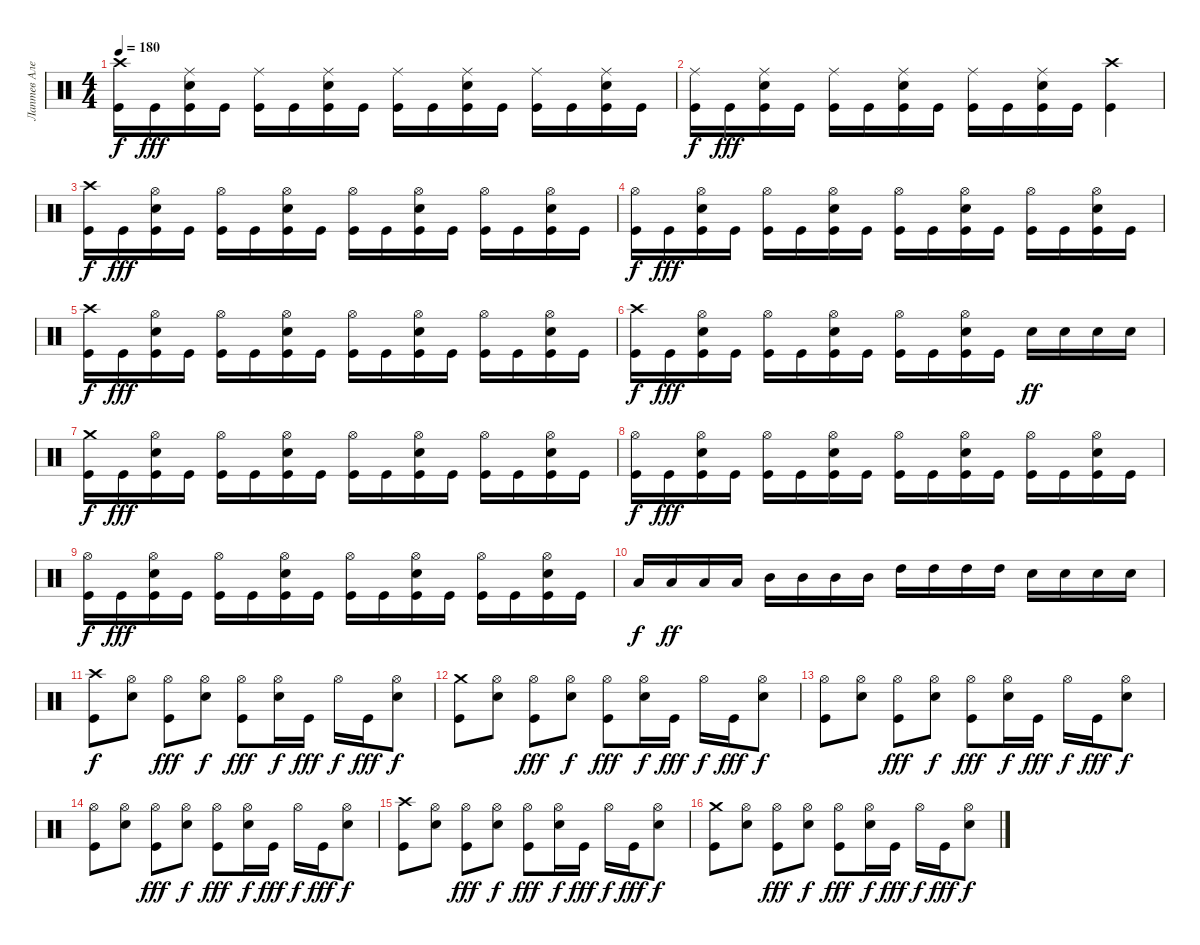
\track ("Лаптев Алексей" "Лаптев Але") {instrument percussion}
\staff {score}
\articulation defaults
\ts (4 4)
\tempo 180
\clef neutral
\ks c
("Crash high (hit)" "Kick (hit)").16{dy f} "Kick (hit)".16{dy fff} ("Snare (hit) 2" "Ride (middle)" "Kick (hit)").16 "Kick (hit)".16 ("Ride (middle)" "Kick (hit)").16 "Kick (hit)".16 ("Ride (middle)" "Snare (hit) 2" "Kick (hit)").16 "Kick (hit)".16 ("Ride (middle)" "Kick (hit)").16 "Kick (hit)".16 ("Ride (middle)" "Snare (hit) 2" "Kick (hit)").16 "Kick (hit)".16 ("Ride (middle)" "Kick (hit)").16 "Kick (hit)".16 ("Ride (middle)" "Snare (hit) 2" "Kick (hit)").16 "Kick (hit)".16 |
("Ride (middle)" "Kick (hit)").16{dy f} "Kick (hit)".16{dy fff} ("Snare (hit) 2" "Ride (middle)" "Kick (hit)").16 "Kick (hit)".16 ("Ride (middle)" "Kick (hit)").16 "Kick (hit)".16 ("Ride (middle)" "Snare (hit) 2" "Kick (hit)").16 "Kick (hit)".16 ("Ride (middle)" "Kick (hit)").16 "Kick (hit)".16 ("Ride (middle)" "Snare (hit) 2" "Kick (hit)").16 "Kick (hit)".16 ("Crash high (hit)" "Kick (hit)").4 |
("Crash high (hit)" "Kick (hit)").16{dy f} "Kick (hit)".16{dy fff} ("Hi-Hat (open)" "Snare (hit) 2" "Kick (hit)").16 "Kick (hit)".16 ("Hi-Hat (open)" "Kick (hit)").16 "Kick (hit)".16 ("Hi-Hat (open)" "Snare (hit) 2" "Kick (hit)").16 "Kick (hit)".16 ("Hi-Hat (open)" "Kick (hit)").16 "Kick (hit)".16 ("Hi-Hat (open)" "Snare (hit) 2" "Kick (hit)").16 "Kick (hit)".16 ("Hi-Hat (open)" "Kick (hit)").16 "Kick (hit)".16 ("Hi-Hat (open)" "Snare (hit) 2" "Kick (hit)").16 "Kick (hit)".16 |
("Hi-Hat (open)" "Kick (hit)").16{dy f} "Kick (hit)".16{dy fff} ("Hi-Hat (open)" "Snare (hit) 2" "Kick (hit)").16 "Kick (hit)".16 ("Hi-Hat (open)" "Kick (hit)").16 "Kick (hit)".16 ("Hi-Hat (open)" "Snare (hit) 2" "Kick (hit)").16 "Kick (hit)".16 ("Hi-Hat (open)" "Kick (hit)").16 "Kick (hit)".16 ("Hi-Hat (open)" "Snare (hit) 2" "Kick (hit)").16 "Kick (hit)".16 ("Hi-Hat (open)" "Kick (hit)").16 "Kick (hit)".16 ("Hi-Hat (open)" "Snare (hit) 2" "Kick (hit)").16 "Kick (hit)".16 |
("Crash high (hit)" "Kick (hit)").16{dy f} "Kick (hit)".16{dy fff} ("Hi-Hat (open)" "Snare (hit) 2" "Kick (hit)").16 "Kick (hit)".16 ("Hi-Hat (open)" "Kick (hit)").16 "Kick (hit)".16 ("Hi-Hat (open)" "Snare (hit) 2" "Kick (hit)").16 "Kick (hit)".16 ("Hi-Hat (open)" "Kick (hit)").16 "Kick (hit)".16 ("Hi-Hat (open)" "Snare (hit) 2" "Kick (hit)").16 "Kick (hit)".16 ("Hi-Hat (open)" "Kick (hit)").16 "Kick (hit)".16 ("Hi-Hat (open)" "Snare (hit) 2" "Kick (hit)").16 "Kick (hit)".16 |
("Crash high (hit)" "Kick (hit)").16{dy f} "Kick (hit)".16{dy fff} ("Hi-Hat (open)" "Snare (hit) 2" "Kick (hit)").16 "Kick (hit)".16 ("Hi-Hat (open)" "Kick (hit)").16 "Kick (hit)".16 ("Hi-Hat (open)" "Snare (hit) 2" "Kick (hit)").16 "Kick (hit)".16 ("Hi-Hat (open)" "Kick (hit)").16 "Kick (hit)".16 ("Hi-Hat (open)" "Snare (hit) 2" "Kick (hit)").16 "Kick (hit)".16 "Snare (hit) 2".16{dy ff} "Snare (hit) 2".16 "Snare (hit) 2".16 "Snare (hit) 2".16 |
("Crash medium (hit)" "Kick (hit)").16{dy f} "Kick (hit)".16{dy fff} ("Hi-Hat (open)" "Snare (hit) 2" "Kick (hit)").16 "Kick (hit)".16 ("Hi-Hat (open)" "Kick (hit)").16 "Kick (hit)".16 ("Hi-Hat (open)" "Snare (hit) 2" "Kick (hit)").16 "Kick (hit)".16 ("Hi-Hat (open)" "Kick (hit)").16 "Kick (hit)".16 ("Hi-Hat (open)" "Snare (hit) 2" "Kick (hit)").16 "Kick (hit)".16 ("Hi-Hat (open)" "Kick (hit)").16 "Kick (hit)".16 ("Hi-Hat (open)" "Snare (hit) 2" "Kick (hit)").16 "Kick (hit)".16 |
("Hi-Hat (open)" "Kick (hit)").16{dy f} "Kick (hit)".16{dy fff} ("Hi-Hat (open)" "Snare (hit) 2" "Kick (hit)").16 "Kick (hit)".16 ("Hi-Hat (open)" "Kick (hit)").16 "Kick (hit)".16 ("Hi-Hat (open)" "Snare (hit) 2" "Kick (hit)").16 "Kick (hit)".16 ("Hi-Hat (open)" "Kick (hit)").16 "Kick (hit)".16 ("Hi-Hat (open)" "Snare (hit) 2" "Kick (hit)").16 "Kick (hit)".16 ("Hi-Hat (open)" "Kick (hit)").16 "Kick (hit)".16 ("Hi-Hat (open)" "Snare (hit) 2" "Kick (hit)").16 "Kick (hit)".16 |
("Hi-Hat (open)" "Kick (hit)").16{dy f} "Kick (hit)".16{dy fff} ("Hi-Hat (open)" "Snare (hit) 2" "Kick (hit)").16 "Kick (hit)".16 ("Hi-Hat (open)" "Kick (hit)").16 "Kick (hit)".16 ("Hi-Hat (open)" "Snare (hit) 2" "Kick (hit)").16 "Kick (hit)".16 ("Hi-Hat (open)" "Kick (hit)").16 "Kick (hit)".16 ("Hi-Hat (open)" "Snare (hit) 2" "Kick (hit)").16 "Kick (hit)".16 ("Hi-Hat (open)" "Kick (hit)").16 "Kick (hit)".16 ("Hi-Hat (open)" "Snare (hit) 2" "Kick (hit)").16 "Kick (hit)".16 |
"Low Tom (hit)".16{dy f} "Low Tom (hit)".16{dy ff} "Low Tom (hit)".16 "Low Tom (hit)".16 "Mid Tom (hit)".16 "Mid Tom (hit)".16 "Mid Tom (hit)".16 "Mid Tom (hit)".16 "High Tom (hit)".16 "High Tom (hit)".16 "High Tom (hit)".16 "High Tom (hit)".16 "Snare (hit) 2".16 "Snare (hit) 2".16 "Snare (hit) 2".16 "Snare (hit) 2".16 |
("Crash high (hit)" "Kick (hit)").8{dy f} ("Hi-Hat (open)" "Snare (hit) 2").8 ("Hi-Hat (open)" "Kick (hit)").8{dy fff} ("Hi-Hat (open)" "Snare (hit) 2").8{dy f} ("Hi-Hat (open)" "Kick (hit)").8{dy fff} ("Hi-Hat (open)" "Snare (hit) 2").16{dy f} "Kick (hit)".16{dy fff} "Hi-Hat (open)".16{dy f} "Kick (hit)".16{dy fff} ("Hi-Hat (open)" "Snare (hit) 2").8{dy f} |
("Crash medium (hit)" "Kick (hit)").8 ("Hi-Hat (open)" "Snare (hit) 2").8 ("Hi-Hat (open)" "Kick (hit)").8{dy fff} ("Hi-Hat (open)" "Snare (hit) 2").8{dy f} ("Hi-Hat (open)" "Kick (hit)").8{dy fff} ("Hi-Hat (open)" "Snare (hit) 2").16{dy f} "Kick (hit)".16{dy fff} "Hi-Hat (open)".16{dy f} "Kick (hit)".16{dy fff} ("Hi-Hat (open)" "Snare (hit) 2").8{dy f} |
("Hi-Hat (open)" "Kick (hit)").8 ("Hi-Hat (open)" "Snare (hit) 2").8 ("Hi-Hat (open)" "Kick (hit)").8{dy fff} ("Hi-Hat (open)" "Snare (hit) 2").8{dy f} ("Hi-Hat (open)" "Kick (hit)").8{dy fff} ("Hi-Hat (open)" "Snare (hit) 2").16{dy f} "Kick (hit)".16{dy fff} "Hi-Hat (open)".16{dy f} "Kick (hit)".16{dy fff} ("Hi-Hat (open)" "Snare (hit) 2").8{dy f} |
("Hi-Hat (open)" "Kick (hit)").8 ("Hi-Hat (open)" "Snare (hit) 2").8 ("Hi-Hat (open)" "Kick (hit)").8{dy fff} ("Hi-Hat (open)" "Snare (hit) 2").8{dy f} ("Hi-Hat (open)" "Kick (hit)").8{dy fff} ("Hi-Hat (open)" "Snare (hit) 2").16{dy f} "Kick (hit)".16{dy fff} "Hi-Hat (open)".16{dy f} "Kick (hit)".16{dy fff} ("Hi-Hat (open)" "Snare (hit) 2").8{dy f} |
("Crash high (hit)" "Kick (hit)").8 ("Hi-Hat (open)" "Snare (hit) 2").8 ("Hi-Hat (open)" "Kick (hit)").8{dy fff} ("Hi-Hat (open)" "Snare (hit) 2").8{dy f} ("Hi-Hat (open)" "Kick (hit)").8{dy fff} ("Hi-Hat (open)" "Snare (hit) 2").16{dy f} "Kick (hit)".16{dy fff} "Hi-Hat (open)".16{dy f} "Kick (hit)".16{dy fff} ("Hi-Hat (open)" "Snare (hit) 2").8{dy f} |
("Crash medium (hit)" "Kick (hit)").8 ("Hi-Hat (open)" "Snare (hit) 2").8 ("Hi-Hat (open)" "Kick (hit)").8{dy fff} ("Hi-Hat (open)" "Snare (hit) 2").8{dy f} ("Hi-Hat (open)" "Kick (hit)").8{dy fff} ("Hi-Hat (open)" "Snare (hit) 2").16{dy f} "Kick (hit)".16{dy fff} "Hi-Hat (open)".16{dy f} "Kick (hit)".16{dy fff} ("Hi-Hat (open)" "Snare (hit) 2").8{dy f}
